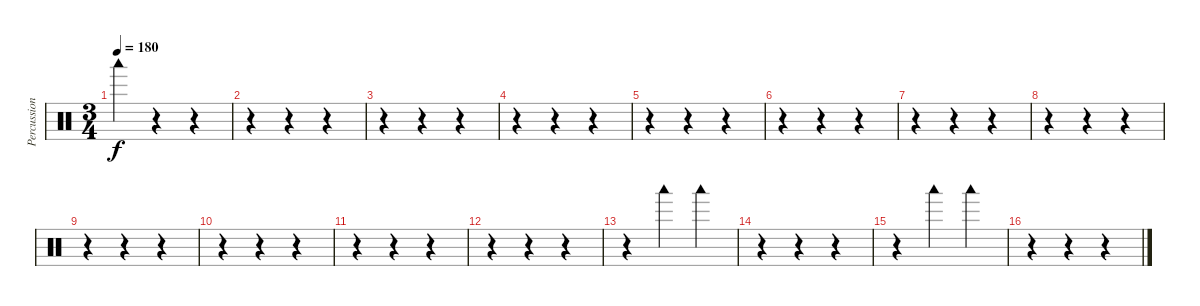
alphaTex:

\track ("Percussions" "Percussion") {instrument percussion}
\staff {score}
\articulation defaults
\ts (3 4)
\tempo 180
\clef neutral
\ks c "Woodblock low (hit)".4{dy f}
r.4 r.4 |
r.4 r.4 r.4 |
r.4 r.4 r.4 |
r.4 r.4 r.4 |
r.4 r.4 r.4 |
r.4 r.4 r.4 |
r.4 r.4 r.4 |
r.4 r.4 r.4 |
r.4 r.4 r.4 |
r.4 r.4 r.4 |
r.4 r.4 r.4 |
r.4 r.4 r.4 |
r.4 "Woodblock low (hit)".4 "Woodblock low (hit)".4 |
r.4 r.4 r.4 |
r.4 "Woodblock low (hit)".4 "Woodblock low (hit)".4 |
r.4 r.4 r.4
